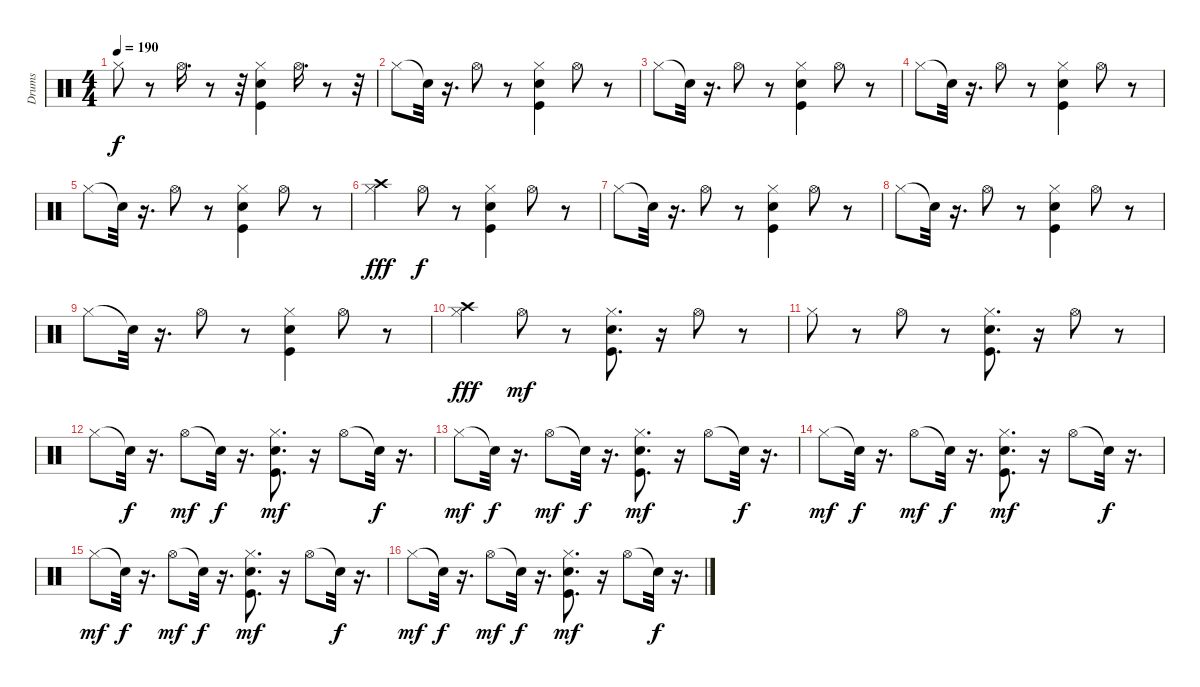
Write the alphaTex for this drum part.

\track ("Drums" "Drums") {instrument percussion}
\staff {score}
\articulation defaults
\ts (4 4)
\tempo 190
\clef neutral
\ks c "Hi-Hat (closed)".8{dy f}
r.8 "Hi-Hat (open)".16{d} r.8 r.32 ("Kick (hit)" "Snare (hit) 2" "Hi-Hat (closed)").4 "Hi-Hat (open)".16{d} r.8 r.32 |
"Hi-Hat (closed)".8 "Snare (hit)"{t}.32 r.16{d} "Hi-Hat (open)".8 r.8 ("Kick (hit)" "Snare (hit) 2" "Hi-Hat (closed)").4 "Hi-Hat (open)".8 r.8 |
"Hi-Hat (closed)".8 "Snare (hit)"{t}.32 r.16{d} "Hi-Hat (open)".8 r.8 ("Kick (hit)" "Snare (hit) 2" "Hi-Hat (closed)").4 "Hi-Hat (open)".8 r.8 |
"Hi-Hat (closed)".8 "Snare (hit)"{t}.32 r.16{d} "Hi-Hat (open)".8 r.8 ("Kick (hit)" "Snare (hit) 2" "Hi-Hat (closed)").4 "Hi-Hat (open)".8 r.8 |
"Hi-Hat (closed)".8 "Snare (hit)"{t}.32 r.16{d} "Hi-Hat (open)".8 r.8 ("Kick (hit)" "Snare (hit) 2" "Hi-Hat (closed)").4 "Hi-Hat (open)".8 r.8 |
("Crash high (hit)" "Hi-Hat (closed)").4{dy fff} "Hi-Hat (open)".8{dy f} r.8 ("Kick (hit)" "Snare (hit) 2" "Hi-Hat (closed)").4 "Hi-Hat (open)".8 r.8 |
"Hi-Hat (closed)".8 "Snare (hit)"{t}.32 r.16{d} "Hi-Hat (open)".8 r.8 ("Kick (hit)" "Snare (hit) 2" "Hi-Hat (closed)").4 "Hi-Hat (open)".8 r.8 |
"Hi-Hat (closed)".8 "Snare (hit)"{t}.32 r.16{d} "Hi-Hat (open)".8 r.8 ("Kick (hit)" "Snare (hit) 2" "Hi-Hat (closed)").4 "Hi-Hat (open)".8 r.8 |
"Hi-Hat (closed)".8 "Snare (hit)"{t}.32 r.16{d} "Hi-Hat (open)".8 r.8 ("Kick (hit)" "Snare (hit) 2" "Hi-Hat (closed)").4 "Hi-Hat (open)".8 r.8 |
("Crash high (hit)" "Hi-Hat (closed)").4{dy fff} "Hi-Hat (open)".8{dy mf} r.8 ("Kick (hit)" "Snare (hit) 2" "Hi-Hat (closed)").8{d} r.16 "Hi-Hat (open)".8 r.8 |
"Hi-Hat (closed)".8 r.8 "Hi-Hat (open)".8 r.8 ("Kick (hit)" "Snare (hit) 2" "Hi-Hat (closed)").8{d} r.16 "Hi-Hat (open)".8 r.8 |
"Hi-Hat (closed)".8 "Snare (hit)"{t}.32{dy f} r.16{d} "Hi-Hat (open)".8{dy mf} "Snare (hit)"{t}.32{dy f} r.16{d} ("Kick (hit)" "Snare (hit) 2" "Hi-Hat (closed)").8{d dy mf} r.16 "Hi-Hat (open)".8 "Snare (hit)"{t}.32{dy f} r.16{d} |
"Hi-Hat (closed)".8{dy mf} "Snare (hit)"{t}.32{dy f} r.16{d} "Hi-Hat (open)".8{dy mf} "Snare (hit)"{t}.32{dy f} r.16{d} ("Kick (hit)" "Snare (hit) 2" "Hi-Hat (closed)").8{d dy mf} r.16 "Hi-Hat (open)".8 "Snare (hit)"{t}.32{dy f} r.16{d} |
"Hi-Hat (closed)".8{dy mf} "Snare (hit)"{t}.32{dy f} r.16{d} "Hi-Hat (open)".8{dy mf} "Snare (hit)"{t}.32{dy f} r.16{d} ("Kick (hit)" "Snare (hit) 2" "Hi-Hat (closed)").8{d dy mf} r.16 "Hi-Hat (open)".8 "Snare (hit)"{t}.32{dy f} r.16{d} |
"Hi-Hat (closed)".8{dy mf} "Snare (hit)"{t}.32{dy f} r.16{d} "Hi-Hat (open)".8{dy mf} "Snare (hit)"{t}.32{dy f} r.16{d} ("Kick (hit)" "Snare (hit) 2" "Hi-Hat (closed)").8{d dy mf} r.16 "Hi-Hat (open)".8 "Snare (hit)"{t}.32{dy f} r.16{d} |
"Hi-Hat (closed)".8{dy mf} "Snare (hit)"{t}.32{dy f} r.16{d} "Hi-Hat (open)".8{dy mf} "Snare (hit)"{t}.32{dy f} r.16{d} ("Kick (hit)" "Snare (hit) 2" "Hi-Hat (closed)").8{d dy mf} r.16 "Hi-Hat (open)".8 "Snare (hit)"{t}.32{dy f} r.16{d}
